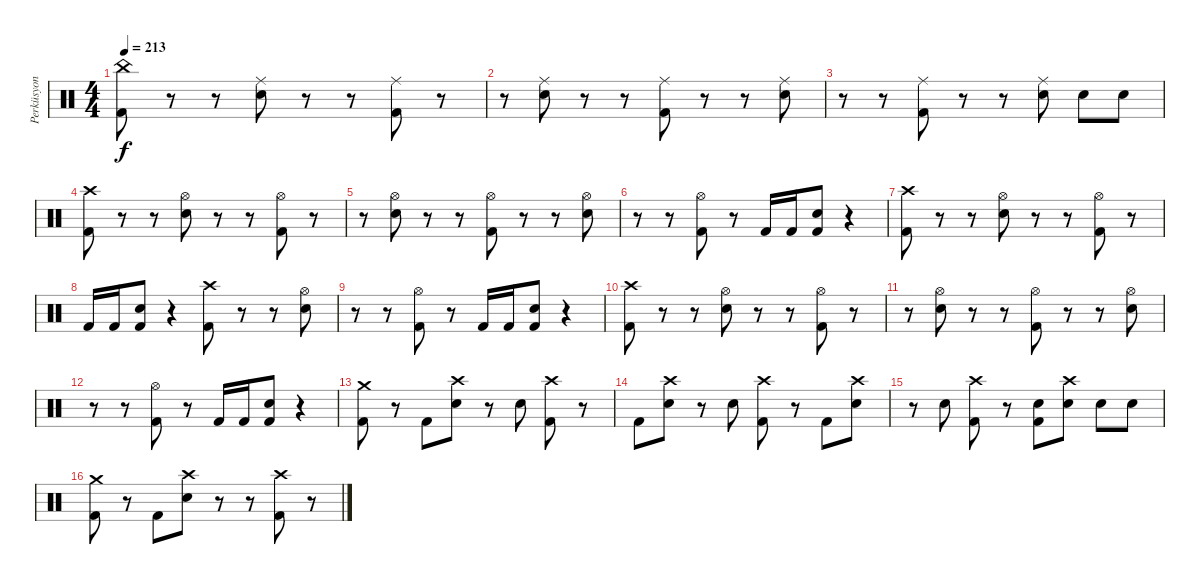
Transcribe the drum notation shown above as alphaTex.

\track ("Perküsyon" "Perküsyon") {instrument percussion}
\staff {score}
\articulation defaults
\ts (4 4)
\tempo 213
\clef neutral
\ks c
("China (hit)" "Kick (hit) 2").8{dy f} r.8 r.8 ("Ride (middle)" "Electric Snare (hit)").8 r.8 r.8 ("Ride (middle)" "Kick (hit) 2").8 r.8 |
r.8 ("Ride (middle)" "Electric Snare (hit)").8 r.8 r.8 ("Ride (middle)" "Kick (hit) 2").8 r.8 r.8 ("Ride (middle)" "Electric Snare (hit)").8 |
r.8 r.8 ("Ride (middle)" "Kick (hit) 2").8 r.8 r.8 ("Ride (middle)" "Electric Snare (hit)").8 "Electric Snare (hit)".8 "Electric Snare (hit)".8 |
("Crash high (hit)" "Kick (hit) 2").8 r.8 r.8 ("Hi-Hat (open)" "Electric Snare (hit)").8 r.8 r.8 ("Hi-Hat (open)" "Kick (hit) 2").8 r.8 |
r.8 ("Hi-Hat (open)" "Electric Snare (hit)").8 r.8 r.8 ("Hi-Hat (open)" "Kick (hit) 2").8 r.8 r.8 ("Hi-Hat (open)" "Electric Snare (hit)").8 |
r.8 r.8 ("Hi-Hat (open)" "Kick (hit) 2").8 r.8 "Kick (hit) 2".16 "Kick (hit) 2".16 ("Electric Snare (hit)" "Kick (hit) 2").8 r.4 |
("Crash high (hit)" "Kick (hit) 2").8 r.8 r.8 ("Hi-Hat (open)" "Electric Snare (hit)").8 r.8 r.8 ("Hi-Hat (open)" "Kick (hit) 2").8 r.8 |
"Kick (hit) 2".16 "Kick (hit) 2".16 ("Electric Snare (hit)" "Kick (hit) 2").8 r.4 ("Crash high (hit)" "Kick (hit) 2").8 r.8 r.8 ("Hi-Hat (open)" "Electric Snare (hit)").8 |
r.8 r.8 ("Hi-Hat (open)" "Kick (hit) 2").8 r.8 "Kick (hit) 2".16 "Kick (hit) 2".16 ("Electric Snare (hit)" "Kick (hit) 2").8 r.4 |
("Crash high (hit)" "Kick (hit) 2").8 r.8 r.8 ("Hi-Hat (open)" "Electric Snare (hit)").8 r.8 r.8 ("Hi-Hat (open)" "Kick (hit) 2").8 r.8 |
r.8 ("Hi-Hat (open)" "Electric Snare (hit)").8 r.8 r.8 ("Hi-Hat (open)" "Kick (hit) 2").8 r.8 r.8 ("Hi-Hat (open)" "Electric Snare (hit)").8 |
r.8 r.8 ("Hi-Hat (open)" "Kick (hit) 2").8 r.8 "Kick (hit) 2".16 "Kick (hit) 2".16 ("Electric Snare (hit)" "Kick (hit) 2").8 r.4 |
("Crash medium (hit)" "Kick (hit) 2").8 r.8 "Kick (hit) 2".8 ("Crash high (hit)" "Electric Snare (hit)").8 r.8 "Electric Snare (hit)".8 ("Crash high (hit)" "Kick (hit) 2").8 r.8 |
"Kick (hit) 2".8 ("Crash high (hit)" "Electric Snare (hit)").8 r.8 "Electric Snare (hit)".8 ("Crash high (hit)" "Kick (hit) 2").8 r.8 "Kick (hit) 2".8 ("Crash high (hit)" "Electric Snare (hit)").8 |
r.8 "Electric Snare (hit)".8 ("Crash high (hit)" "Kick (hit) 2").8 r.8 ("Electric Snare (hit)" "Kick (hit) 2").8 ("Crash high (hit)" "Electric Snare (hit)").8 "Electric Snare (hit)".8 "Electric Snare (hit)".8 |
("Crash medium (hit)" "Kick (hit) 2").8 r.8 "Kick (hit) 2".8 ("Crash high (hit)" "Electric Snare (hit)").8 r.8 r.8 ("Crash high (hit)" "Kick (hit) 2").8 r.8
